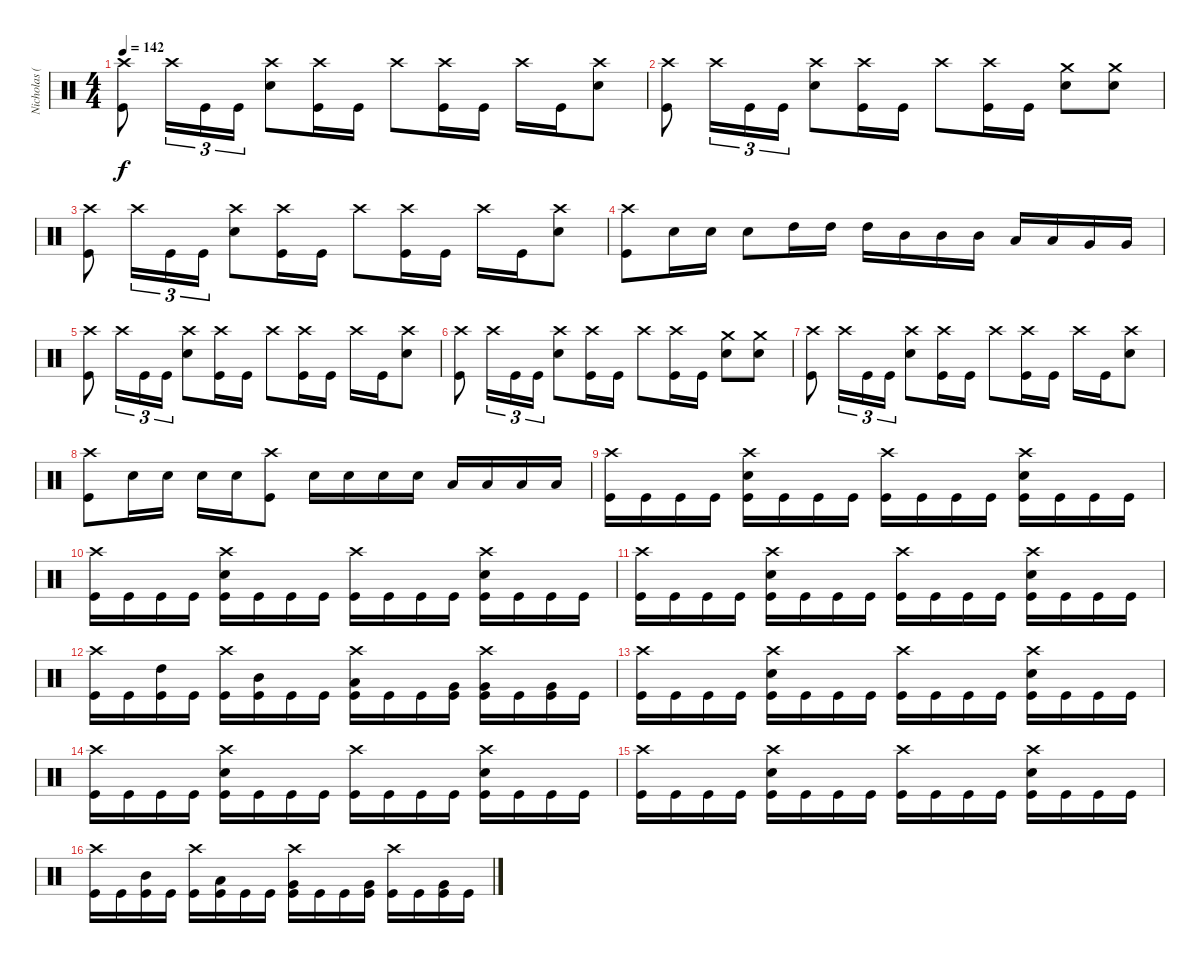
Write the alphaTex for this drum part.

\track ("Nicholas (Drums)" "Nicholas (") {instrument percussion}
\staff {score}
\articulation defaults
\ts (4 4)
\tempo 142
\clef neutral
\ks c
("Crash high (hit)" "Kick (hit)").8{dy f} "Crash high (hit)".16{tu (3 2)} "Kick (hit)".16{tu (3 2)} "Kick (hit)".16{tu (3 2)} ("Crash high (hit)" "Electric Snare (hit)").8 ("Crash high (hit)" "Kick (hit)").16 "Kick (hit)".16 "Crash high (hit)".8 ("Crash high (hit)" "Kick (hit)").16 "Kick (hit)".16 "Crash high (hit)".16 "Kick (hit)".16 ("Crash high (hit)" "Electric Snare (hit)").8 |
("Crash high (hit)" "Kick (hit)").8 "Crash high (hit)".16{tu (3 2)} "Kick (hit)".16{tu (3 2)} "Kick (hit)".16{tu (3 2)} ("Crash high (hit)" "Electric Snare (hit)").8 ("Crash high (hit)" "Kick (hit)").16 "Kick (hit)".16 "Crash high (hit)".8 ("Crash high (hit)" "Kick (hit)").16 "Kick (hit)".16 ("Crash medium (hit)" "Electric Snare (hit)").8 ("Crash medium (hit)" "Electric Snare (hit)").8 |
("Crash high (hit)" "Kick (hit)").8 "Crash high (hit)".16{tu (3 2)} "Kick (hit)".16{tu (3 2)} "Kick (hit)".16{tu (3 2)} ("Crash high (hit)" "Electric Snare (hit)").8 ("Crash high (hit)" "Kick (hit)").16 "Kick (hit)".16 "Crash high (hit)".8 ("Crash high (hit)" "Kick (hit)").16 "Kick (hit)".16 "Crash high (hit)".16 "Kick (hit)".16 ("Crash high (hit)" "Electric Snare (hit)").8 |
("Crash high (hit)" "Kick (hit)").8 "Electric Snare (hit)".16 "Electric Snare (hit)".16 "Electric Snare (hit)".8 "High Tom (hit)".16 "High Tom (hit)".16 "High Tom (hit)".16 "Mid Tom (hit)".16 "Mid Tom (hit)".16 "Mid Tom (hit)".16 "Low Tom (hit)".16 "Low Tom (hit)".16 "Very Low Tom (hit)".16 "Very Low Tom (hit)".16 |
("Crash high (hit)" "Kick (hit)").8 "Crash high (hit)".16{tu (3 2)} "Kick (hit)".16{tu (3 2)} "Kick (hit)".16{tu (3 2)} ("Crash high (hit)" "Electric Snare (hit)").8 ("Crash high (hit)" "Kick (hit)").16 "Kick (hit)".16 "Crash high (hit)".8 ("Crash high (hit)" "Kick (hit)").16 "Kick (hit)".16 "Crash high (hit)".16 "Kick (hit)".16 ("Crash high (hit)" "Electric Snare (hit)").8 |
("Crash high (hit)" "Kick (hit)").8 "Crash high (hit)".16{tu (3 2)} "Kick (hit)".16{tu (3 2)} "Kick (hit)".16{tu (3 2)} ("Crash high (hit)" "Electric Snare (hit)").8 ("Crash high (hit)" "Kick (hit)").16 "Kick (hit)".16 "Crash high (hit)".8 ("Crash high (hit)" "Kick (hit)").16 "Kick (hit)".16 ("Crash medium (hit)" "Electric Snare (hit)").8 ("Crash medium (hit)" "Electric Snare (hit)").8 |
("Crash high (hit)" "Kick (hit)").8 "Crash high (hit)".16{tu (3 2)} "Kick (hit)".16{tu (3 2)} "Kick (hit)".16{tu (3 2)} ("Crash high (hit)" "Electric Snare (hit)").8 ("Crash high (hit)" "Kick (hit)").16 "Kick (hit)".16 "Crash high (hit)".8 ("Crash high (hit)" "Kick (hit)").16 "Kick (hit)".16 "Crash high (hit)".16 "Kick (hit)".16 ("Crash high (hit)" "Electric Snare (hit)").8 |
("Crash high (hit)" "Kick (hit)").8 "Electric Snare (hit)".16 "Electric Snare (hit)".16 "Electric Snare (hit)".16 "Electric Snare (hit)".16 ("Crash high (hit)" "Kick (hit)").8 "Electric Snare (hit)".16 "Electric Snare (hit)".16 "Electric Snare (hit)".16 "Electric Snare (hit)".16 "Low Tom (hit)".16 "Low Tom (hit)".16 "Low Tom (hit)".16 "Low Tom (hit)".16 |
("Crash high (hit)" "Kick (hit)").16 "Kick (hit)".16 "Kick (hit)".16 "Kick (hit)".16 ("Crash high (hit)" "Electric Snare (hit)" "Kick (hit)").16 "Kick (hit)".16 "Kick (hit)".16 "Kick (hit)".16 ("Crash high (hit)" "Kick (hit)").16 "Kick (hit)".16 "Kick (hit)".16 "Kick (hit)".16 ("Crash high (hit)" "Electric Snare (hit)" "Kick (hit)").16 "Kick (hit)".16 "Kick (hit)".16 "Kick (hit)".16 |
("Crash high (hit)" "Kick (hit)").16 "Kick (hit)".16 "Kick (hit)".16 "Kick (hit)".16 ("Crash high (hit)" "Electric Snare (hit)" "Kick (hit)").16 "Kick (hit)".16 "Kick (hit)".16 "Kick (hit)".16 ("Crash high (hit)" "Kick (hit)").16 "Kick (hit)".16 "Kick (hit)".16 "Kick (hit)".16 ("Crash high (hit)" "Electric Snare (hit)" "Kick (hit)").16 "Kick (hit)".16 "Kick (hit)".16 "Kick (hit)".16 |
("Crash high (hit)" "Kick (hit)").16 "Kick (hit)".16 "Kick (hit)".16 "Kick (hit)".16 ("Crash high (hit)" "Electric Snare (hit)" "Kick (hit)").16 "Kick (hit)".16 "Kick (hit)".16 "Kick (hit)".16 ("Crash high (hit)" "Kick (hit)").16 "Kick (hit)".16 "Kick (hit)".16 "Kick (hit)".16 ("Crash high (hit)" "Electric Snare (hit)" "Kick (hit)").16 "Kick (hit)".16 "Kick (hit)".16 "Kick (hit)".16 |
("Crash high (hit)" "Kick (hit)").16 "Kick (hit)".16 ("High Tom (hit)" "Kick (hit)").16 "Kick (hit)".16 ("Crash high (hit)" "Kick (hit)").16 ("Mid Tom (hit)" "Kick (hit)").16 "Kick (hit)".16 "Kick (hit)".16 ("Crash high (hit)" "Low Tom (hit)" "Kick (hit)").16 "Kick (hit)".16 "Kick (hit)".16 ("Very Low Tom (hit)" "Kick (hit)").16 ("Crash high (hit)" "Very Low Tom (hit)" "Kick (hit)").16 "Kick (hit)".16 ("Very Low Tom (hit)" "Kick (hit)").16 "Kick (hit)".16 |
("Crash high (hit)" "Kick (hit)").16 "Kick (hit)".16 "Kick (hit)".16 "Kick (hit)".16 ("Crash high (hit)" "Electric Snare (hit)" "Kick (hit)").16 "Kick (hit)".16 "Kick (hit)".16 "Kick (hit)".16 ("Crash high (hit)" "Kick (hit)").16 "Kick (hit)".16 "Kick (hit)".16 "Kick (hit)".16 ("Crash high (hit)" "Electric Snare (hit)" "Kick (hit)").16 "Kick (hit)".16 "Kick (hit)".16 "Kick (hit)".16 |
("Crash high (hit)" "Kick (hit)").16 "Kick (hit)".16 "Kick (hit)".16 "Kick (hit)".16 ("Crash high (hit)" "Electric Snare (hit)" "Kick (hit)").16 "Kick (hit)".16 "Kick (hit)".16 "Kick (hit)".16 ("Crash high (hit)" "Kick (hit)").16 "Kick (hit)".16 "Kick (hit)".16 "Kick (hit)".16 ("Crash high (hit)" "Electric Snare (hit)" "Kick (hit)").16 "Kick (hit)".16 "Kick (hit)".16 "Kick (hit)".16 |
("Crash high (hit)" "Kick (hit)").16 "Kick (hit)".16 "Kick (hit)".16 "Kick (hit)".16 ("Crash high (hit)" "Electric Snare (hit)" "Kick (hit)").16 "Kick (hit)".16 "Kick (hit)".16 "Kick (hit)".16 ("Crash high (hit)" "Kick (hit)").16 "Kick (hit)".16 "Kick (hit)".16 "Kick (hit)".16 ("Crash high (hit)" "Electric Snare (hit)" "Kick (hit)").16 "Kick (hit)".16 "Kick (hit)".16 "Kick (hit)".16 |
("Crash high (hit)" "Kick (hit)").16 "Kick (hit)".16 ("Mid Tom (hit)" "Kick (hit)").16 "Kick (hit)".16 ("Crash high (hit)" "Kick (hit)").16 ("Low Tom (hit)" "Kick (hit)").16 "Kick (hit)".16 "Kick (hit)".16 ("Crash high (hit)" "Very Low Tom (hit)" "Kick (hit)").16 "Kick (hit)".16 "Kick (hit)".16 ("Very Low Tom (hit)" "Kick (hit)").16 ("Crash high (hit)" "Kick (hit)").16 "Kick (hit)".16 ("Very Low Tom (hit)" "Kick (hit)").16 "Kick (hit)".16
